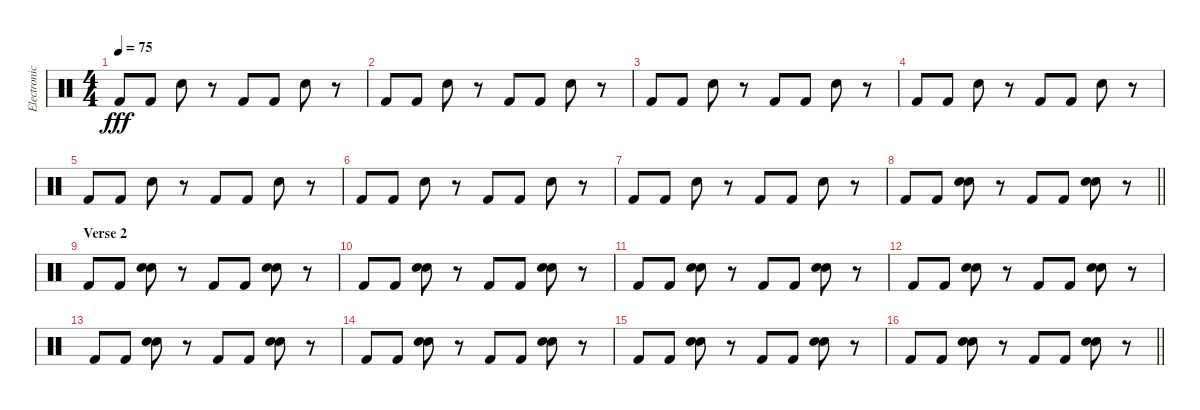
\track ("Electronic Kit" "Electronic") {instrument percussion}
\staff {score}
\articulation defaults
\ts (4 4)
\tempo 75
\clef neutral
\ks c "Kick (hit) 2".8{dy fff} "Kick (hit) 2".8 "Electric Snare (hit)".8
r.8 "Kick (hit) 2".8 "Kick (hit) 2".8 "Electric Snare (hit)".8 r.8 |
"Kick (hit) 2".8 "Kick (hit) 2".8 "Electric Snare (hit)".8 r.8 "Kick (hit) 2".8 "Kick (hit) 2".8 "Electric Snare (hit)".8 r.8 |
"Kick (hit) 2".8 "Kick (hit) 2".8 "Electric Snare (hit)".8 r.8 "Kick (hit) 2".8 "Kick (hit) 2".8 "Electric Snare (hit)".8 r.8 |
"Kick (hit) 2".8 "Kick (hit) 2".8 "Electric Snare (hit)".8 r.8 "Kick (hit) 2".8 "Kick (hit) 2".8 "Electric Snare (hit)".8 r.8 |
"Kick (hit) 2".8 "Kick (hit) 2".8 "Electric Snare (hit)".8 r.8 "Kick (hit) 2".8 "Kick (hit) 2".8 "Electric Snare (hit)".8 r.8 |
"Kick (hit) 2".8 "Kick (hit) 2".8 "Electric Snare (hit)".8 r.8 "Kick (hit) 2".8 "Kick (hit) 2".8 "Electric Snare (hit)".8 r.8 |
"Kick (hit) 2".8 "Kick (hit) 2".8 "Electric Snare (hit)".8 r.8 "Kick (hit) 2".8 "Kick (hit) 2".8 "Electric Snare (hit)".8 r.8 |
\barLineRight lightlight "Kick (hit) 2".8 "Kick (hit) 2".8
("Hand Clap (hit)" "Electric Snare (hit)").8 r.8 "Kick (hit) 2".8 "Kick (hit) 2".8 ("Hand Clap (hit)" "Electric Snare (hit)").8 r.8 |
\section ("" "Verse 2")
"Kick (hit) 2".8 "Kick (hit) 2".8 ("Hand Clap (hit)" "Electric Snare (hit)").8 r.8 "Kick (hit) 2".8 "Kick (hit) 2".8 ("Hand Clap (hit)" "Electric Snare (hit)").8 r.8 |
"Kick (hit) 2".8 "Kick (hit) 2".8 ("Hand Clap (hit)" "Electric Snare (hit)").8 r.8 "Kick (hit) 2".8 "Kick (hit) 2".8 ("Hand Clap (hit)" "Electric Snare (hit)").8 r.8 |
"Kick (hit) 2".8 "Kick (hit) 2".8 ("Hand Clap (hit)" "Electric Snare (hit)").8 r.8 "Kick (hit) 2".8 "Kick (hit) 2".8 ("Hand Clap (hit)" "Electric Snare (hit)").8 r.8 |
"Kick (hit) 2".8 "Kick (hit) 2".8 ("Hand Clap (hit)" "Electric Snare (hit)").8 r.8 "Kick (hit) 2".8 "Kick (hit) 2".8 ("Hand Clap (hit)" "Electric Snare (hit)").8 r.8 |
"Kick (hit) 2".8 "Kick (hit) 2".8 ("Hand Clap (hit)" "Electric Snare (hit)").8 r.8 "Kick (hit) 2".8 "Kick (hit) 2".8 ("Hand Clap (hit)" "Electric Snare (hit)").8 r.8 |
"Kick (hit) 2".8 "Kick (hit) 2".8 ("Hand Clap (hit)" "Electric Snare (hit)").8 r.8 "Kick (hit) 2".8 "Kick (hit) 2".8 ("Hand Clap (hit)" "Electric Snare (hit)").8 r.8 |
"Kick (hit) 2".8 "Kick (hit) 2".8 ("Hand Clap (hit)" "Electric Snare (hit)").8 r.8 "Kick (hit) 2".8 "Kick (hit) 2".8 ("Hand Clap (hit)" "Electric Snare (hit)").8 r.8 |
\barLineRight lightlight "Kick (hit) 2".8 "Kick (hit) 2".8
("Hand Clap (hit)" "Electric Snare (hit)").8 r.8 "Kick (hit) 2".8 "Kick (hit) 2".8 ("Hand Clap (hit)" "Electric Snare (hit)").8 r.8
